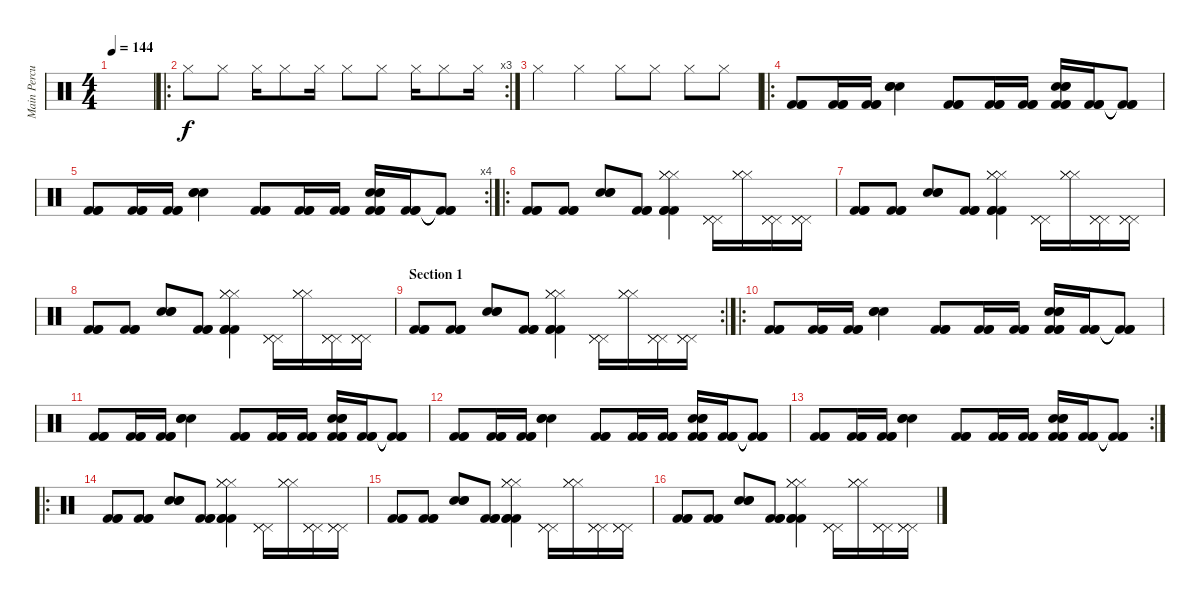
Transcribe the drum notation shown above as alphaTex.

\track ("Main Percussion" "Main Percu") {instrument percussion}
\staff {score}
\articulation defaults
\ts (4 4)
\tempo 144
\clef neutral
\ks c
|
\ro
\rc 3 "Hi-Hat (closed)".8 "Hi-Hat (closed)".8 "Hi-Hat (closed)".16 "Hi-Hat (closed)".8 "Hi-Hat (closed)".16 "Hi-Hat (closed)".8 "Hi-Hat (closed)".8 "Hi-Hat (closed)".16 "Hi-Hat (closed)".8 "Hi-Hat (closed)".16
|
"Hi-Hat (closed)".4 "Hi-Hat (closed)".4 "Hi-Hat (closed)".8 "Hi-Hat (closed)".8 "Hi-Hat (closed)".8 "Hi-Hat (closed)".8 |
\ro
("Kick (hit) 2" "Kick (hit) 2" "Kick (hit) 2").8 ("Kick (hit) 2" "Kick (hit) 2" "Kick (hit) 2").16 ("Kick (hit) 2" "Kick (hit) 2" "Kick (hit) 2").16 ("Electric Snare (hit)" "Electric Snare (hit)" "Electric Snare (hit)").4 ("Kick (hit) 2" "Kick (hit) 2" "Kick (hit) 2").8 ("Kick (hit) 2" "Kick (hit) 2" "Kick (hit) 2").16 ("Kick (hit) 2" "Kick (hit) 2" "Kick (hit) 2").16 ("Snare (hit) 2" "Snare (hit) 2" "Snare (hit) 2" "Kick (hit) 2" "Kick (hit) 2" "Kick (hit) 2").16 ("Kick (hit) 2" "Kick (hit) 2" "Kick (hit) 2").16 ("Kick (hit) 2"{t} "Kick (hit) 2"{t} "Kick (hit) 2"{t}).8 |
\rc 4
("Kick (hit) 2" "Kick (hit) 2" "Kick (hit) 2").8 ("Kick (hit) 2" "Kick (hit) 2" "Kick (hit) 2").16 ("Kick (hit) 2" "Kick (hit) 2" "Kick (hit) 2").16 ("Electric Snare (hit)" "Electric Snare (hit)" "Electric Snare (hit)").4 ("Kick (hit) 2" "Kick (hit) 2" "Kick (hit) 2").8 ("Kick (hit) 2" "Kick (hit) 2" "Kick (hit) 2").16 ("Kick (hit) 2" "Kick (hit) 2" "Kick (hit) 2").16 ("Snare (hit) 2" "Snare (hit) 2" "Snare (hit) 2" "Kick (hit) 2" "Kick (hit) 2" "Kick (hit) 2").16 ("Kick (hit) 2" "Kick (hit) 2" "Kick (hit) 2").16 ("Kick (hit) 2"{t} "Kick (hit) 2"{t} "Kick (hit) 2"{t}).8 |
\ro
("Kick (hit) 2" "Kick (hit) 2" "Kick (hit) 2").8 ("Kick (hit) 2" "Kick (hit) 2" "Kick (hit) 2").8 ("Snare (hit) 2" "Snare (hit) 2" "Snare (hit) 2").8 ("Kick (hit) 2" "Kick (hit) 2" "Kick (hit) 2").8 ("Hi-Hat (closed)" "Hi-Hat (closed)" "Hi-Hat (closed)" "Kick (hit) 2" "Kick (hit) 2" "Kick (hit) 2").4 ("Pedal Hi-Hat (hit)" "Pedal Hi-Hat (hit)" "Pedal Hi-Hat (hit)").16 ("Hi-Hat (closed)" "Hi-Hat (closed)" "Hi-Hat (closed)").16 ("Pedal Hi-Hat (hit)" "Pedal Hi-Hat (hit)" "Pedal Hi-Hat (hit)").16 ("Pedal Hi-Hat (hit)" "Pedal Hi-Hat (hit)" "Pedal Hi-Hat (hit)").16 |
("Kick (hit) 2" "Kick (hit) 2" "Kick (hit) 2").8 ("Kick (hit) 2" "Kick (hit) 2" "Kick (hit) 2").8 ("Snare (hit) 2" "Snare (hit) 2" "Snare (hit) 2").8 ("Kick (hit) 2" "Kick (hit) 2" "Kick (hit) 2").8 ("Hi-Hat (closed)" "Hi-Hat (closed)" "Hi-Hat (closed)" "Kick (hit) 2" "Kick (hit) 2" "Kick (hit) 2").4 ("Pedal Hi-Hat (hit)" "Pedal Hi-Hat (hit)" "Pedal Hi-Hat (hit)").16 ("Hi-Hat (closed)" "Hi-Hat (closed)" "Hi-Hat (closed)").16 ("Pedal Hi-Hat (hit)" "Pedal Hi-Hat (hit)" "Pedal Hi-Hat (hit)").16 ("Pedal Hi-Hat (hit)" "Pedal Hi-Hat (hit)" "Pedal Hi-Hat (hit)").16 |
("Kick (hit) 2" "Kick (hit) 2" "Kick (hit) 2").8 ("Kick (hit) 2" "Kick (hit) 2" "Kick (hit) 2").8 ("Snare (hit) 2" "Snare (hit) 2" "Snare (hit) 2").8 ("Kick (hit) 2" "Kick (hit) 2" "Kick (hit) 2").8 ("Hi-Hat (closed)" "Hi-Hat (closed)" "Hi-Hat (closed)" "Kick (hit) 2" "Kick (hit) 2" "Kick (hit) 2").4 ("Pedal Hi-Hat (hit)" "Pedal Hi-Hat (hit)" "Pedal Hi-Hat (hit)").16 ("Hi-Hat (closed)" "Hi-Hat (closed)" "Hi-Hat (closed)").16 ("Pedal Hi-Hat (hit)" "Pedal Hi-Hat (hit)" "Pedal Hi-Hat (hit)").16 ("Pedal Hi-Hat (hit)" "Pedal Hi-Hat (hit)" "Pedal Hi-Hat (hit)").16 |
\rc 2
\section ("" "Section 1")
("Kick (hit) 2" "Kick (hit) 2" "Kick (hit) 2").8 ("Kick (hit) 2" "Kick (hit) 2" "Kick (hit) 2").8 ("Snare (hit) 2" "Snare (hit) 2" "Snare (hit) 2").8 ("Kick (hit) 2" "Kick (hit) 2" "Kick (hit) 2").8 ("Hi-Hat (closed)" "Hi-Hat (closed)" "Hi-Hat (closed)" "Kick (hit) 2" "Kick (hit) 2" "Kick (hit) 2").4 ("Pedal Hi-Hat (hit)" "Pedal Hi-Hat (hit)" "Pedal Hi-Hat (hit)").16 ("Hi-Hat (closed)" "Hi-Hat (closed)" "Hi-Hat (closed)").16 ("Pedal Hi-Hat (hit)" "Pedal Hi-Hat (hit)" "Pedal Hi-Hat (hit)").16 ("Pedal Hi-Hat (hit)" "Pedal Hi-Hat (hit)" "Pedal Hi-Hat (hit)").16 |
\ro
("Kick (hit) 2" "Kick (hit) 2" "Kick (hit) 2").8 ("Kick (hit) 2" "Kick (hit) 2" "Kick (hit) 2").16 ("Kick (hit) 2" "Kick (hit) 2" "Kick (hit) 2").16 ("Electric Snare (hit)" "Electric Snare (hit)" "Electric Snare (hit)").4 ("Kick (hit) 2" "Kick (hit) 2" "Kick (hit) 2").8 ("Kick (hit) 2" "Kick (hit) 2" "Kick (hit) 2").16 ("Kick (hit) 2" "Kick (hit) 2" "Kick (hit) 2").16 ("Snare (hit) 2" "Snare (hit) 2" "Snare (hit) 2" "Kick (hit) 2" "Kick (hit) 2" "Kick (hit) 2").16 ("Kick (hit) 2" "Kick (hit) 2" "Kick (hit) 2").16 ("Kick (hit) 2"{t} "Kick (hit) 2"{t} "Kick (hit) 2"{t}).8 |
("Kick (hit) 2" "Kick (hit) 2" "Kick (hit) 2").8 ("Kick (hit) 2" "Kick (hit) 2" "Kick (hit) 2").16 ("Kick (hit) 2" "Kick (hit) 2" "Kick (hit) 2").16 ("Electric Snare (hit)" "Electric Snare (hit)" "Electric Snare (hit)").4 ("Kick (hit) 2" "Kick (hit) 2" "Kick (hit) 2").8 ("Kick (hit) 2" "Kick (hit) 2" "Kick (hit) 2").16 ("Kick (hit) 2" "Kick (hit) 2" "Kick (hit) 2").16 ("Snare (hit) 2" "Snare (hit) 2" "Snare (hit) 2" "Kick (hit) 2" "Kick (hit) 2" "Kick (hit) 2").16 ("Kick (hit) 2" "Kick (hit) 2" "Kick (hit) 2").16 ("Kick (hit) 2"{t} "Kick (hit) 2"{t} "Kick (hit) 2"{t}).8 |
("Kick (hit) 2" "Kick (hit) 2" "Kick (hit) 2").8 ("Kick (hit) 2" "Kick (hit) 2" "Kick (hit) 2").16 ("Kick (hit) 2" "Kick (hit) 2" "Kick (hit) 2").16 ("Electric Snare (hit)" "Electric Snare (hit)" "Electric Snare (hit)").4 ("Kick (hit) 2" "Kick (hit) 2" "Kick (hit) 2").8 ("Kick (hit) 2" "Kick (hit) 2" "Kick (hit) 2").16 ("Kick (hit) 2" "Kick (hit) 2" "Kick (hit) 2").16 ("Snare (hit) 2" "Snare (hit) 2" "Snare (hit) 2" "Kick (hit) 2" "Kick (hit) 2" "Kick (hit) 2").16 ("Kick (hit) 2" "Kick (hit) 2" "Kick (hit) 2").16 ("Kick (hit) 2"{t} "Kick (hit) 2"{t} "Kick (hit) 2"{t}).8 |
\rc 2
("Kick (hit) 2" "Kick (hit) 2" "Kick (hit) 2").8 ("Kick (hit) 2" "Kick (hit) 2" "Kick (hit) 2").16 ("Kick (hit) 2" "Kick (hit) 2" "Kick (hit) 2").16 ("Electric Snare (hit)" "Electric Snare (hit)" "Electric Snare (hit)").4 ("Kick (hit) 2" "Kick (hit) 2" "Kick (hit) 2").8 ("Kick (hit) 2" "Kick (hit) 2" "Kick (hit) 2").16 ("Kick (hit) 2" "Kick (hit) 2" "Kick (hit) 2").16 ("Snare (hit) 2" "Snare (hit) 2" "Snare (hit) 2" "Kick (hit) 2" "Kick (hit) 2" "Kick (hit) 2").16 ("Kick (hit) 2" "Kick (hit) 2" "Kick (hit) 2").16 ("Kick (hit) 2"{t} "Kick (hit) 2"{t} "Kick (hit) 2"{t}).8 |
\ro
("Kick (hit) 2" "Kick (hit) 2" "Kick (hit) 2").8 ("Kick (hit) 2" "Kick (hit) 2" "Kick (hit) 2").8 ("Snare (hit) 2" "Snare (hit) 2" "Snare (hit) 2").8 ("Kick (hit) 2" "Kick (hit) 2" "Kick (hit) 2").8 ("Hi-Hat (closed)" "Hi-Hat (closed)" "Hi-Hat (closed)" "Kick (hit) 2" "Kick (hit) 2" "Kick (hit) 2").4 ("Pedal Hi-Hat (hit)" "Pedal Hi-Hat (hit)" "Pedal Hi-Hat (hit)").16 ("Hi-Hat (closed)" "Hi-Hat (closed)" "Hi-Hat (closed)").16 ("Pedal Hi-Hat (hit)" "Pedal Hi-Hat (hit)" "Pedal Hi-Hat (hit)").16 ("Pedal Hi-Hat (hit)" "Pedal Hi-Hat (hit)" "Pedal Hi-Hat (hit)").16 |
("Kick (hit) 2" "Kick (hit) 2" "Kick (hit) 2").8 ("Kick (hit) 2" "Kick (hit) 2" "Kick (hit) 2").8 ("Snare (hit) 2" "Snare (hit) 2" "Snare (hit) 2").8 ("Kick (hit) 2" "Kick (hit) 2" "Kick (hit) 2").8 ("Hi-Hat (closed)" "Hi-Hat (closed)" "Hi-Hat (closed)" "Kick (hit) 2" "Kick (hit) 2" "Kick (hit) 2").4 ("Pedal Hi-Hat (hit)" "Pedal Hi-Hat (hit)" "Pedal Hi-Hat (hit)").16 ("Hi-Hat (closed)" "Hi-Hat (closed)" "Hi-Hat (closed)").16 ("Pedal Hi-Hat (hit)" "Pedal Hi-Hat (hit)" "Pedal Hi-Hat (hit)").16 ("Pedal Hi-Hat (hit)" "Pedal Hi-Hat (hit)" "Pedal Hi-Hat (hit)").16 |
("Kick (hit) 2" "Kick (hit) 2" "Kick (hit) 2").8 ("Kick (hit) 2" "Kick (hit) 2" "Kick (hit) 2").8 ("Snare (hit) 2" "Snare (hit) 2" "Snare (hit) 2").8 ("Kick (hit) 2" "Kick (hit) 2" "Kick (hit) 2").8 ("Hi-Hat (closed)" "Hi-Hat (closed)" "Hi-Hat (closed)" "Kick (hit) 2" "Kick (hit) 2" "Kick (hit) 2").4 ("Pedal Hi-Hat (hit)" "Pedal Hi-Hat (hit)" "Pedal Hi-Hat (hit)").16 ("Hi-Hat (closed)" "Hi-Hat (closed)" "Hi-Hat (closed)").16 ("Pedal Hi-Hat (hit)" "Pedal Hi-Hat (hit)" "Pedal Hi-Hat (hit)").16 ("Pedal Hi-Hat (hit)" "Pedal Hi-Hat (hit)" "Pedal Hi-Hat (hit)").16
